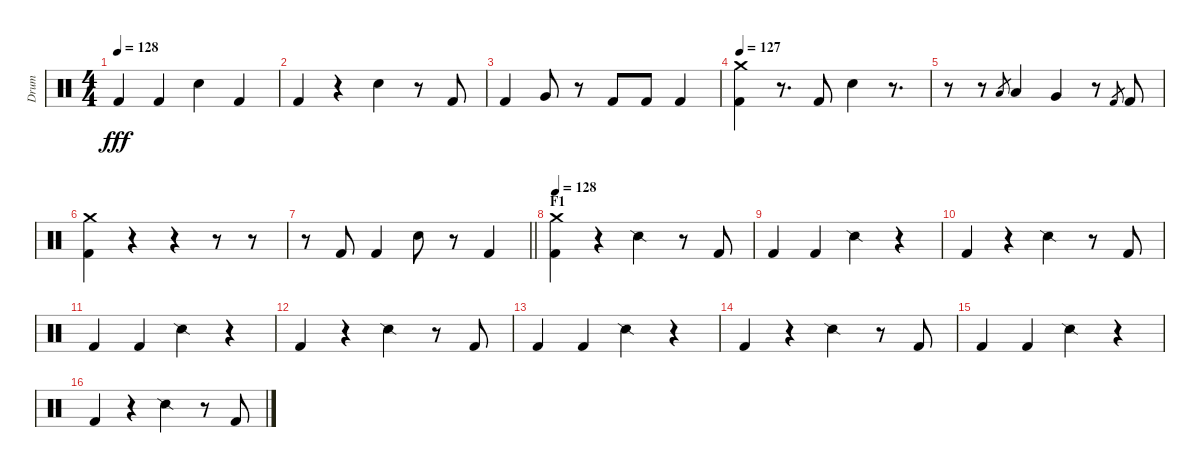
\track ("Drum" "Drum") {instrument percussion}
\staff {score}
\articulation defaults
\ts (4 4)
\tempo 128
\clef neutral
\ks c "Kick (hit) 2".4{dy fff} "Kick (hit) 2".4 "Electric Snare (hit)".4 "Kick (hit) 2".4
|
"Kick (hit) 2".4 r.4 "Electric Snare (hit)".4 r.8 "Kick (hit) 2".8 |
"Kick (hit) 2".4 "Very Low Tom (hit)".8 r.8 "Kick (hit) 2".8 "Kick (hit) 2".8 "Kick (hit) 2".4 |
\tempo 127
("Kick (hit) 2" "Crash medium (hit)").4 r.8{d} "Kick (hit) 2".8 "Electric Snare (hit)".4 r.8{d} |
r.8 r.8 "Low Tom (hit)".8{gr} "Low Tom (hit)".4 "Very Low Tom (hit)".4 r.8 "Kick (hit) 2".8{gr} "Kick (hit) 2".8 |
("Kick (hit) 2" "Crash medium (hit)").4 r.4 r.4 r.8 r.8 |
\barLineRight lightlight
r.8 "Kick (hit) 2".8 "Kick (hit) 2".4 "Electric Snare (hit)".8 r.8 "Kick (hit) 2".4 |
\section ("" "F1")
\tempo 128
("Kick (hit) 2" "Crash medium (hit)").4 r.4 "Snare (side stick) 2".4 r.8 "Kick (hit) 2".8 |
"Kick (hit) 2".4 "Kick (hit) 2".4 "Snare (side stick) 2".4 r.4 |
"Kick (hit) 2".4 r.4 "Snare (side stick) 2".4 r.8 "Kick (hit) 2".8 |
"Kick (hit) 2".4 "Kick (hit) 2".4 "Snare (side stick) 2".4 r.4 |
"Kick (hit) 2".4 r.4 "Snare (side stick) 2".4 r.8 "Kick (hit) 2".8 |
"Kick (hit) 2".4 "Kick (hit) 2".4 "Snare (side stick) 2".4 r.4 |
"Kick (hit) 2".4 r.4 "Snare (side stick) 2".4 r.8 "Kick (hit) 2".8 |
"Kick (hit) 2".4 "Kick (hit) 2".4 "Snare (side stick) 2".4 r.4 |
"Kick (hit) 2".4 r.4 "Snare (side stick) 2".4 r.8 "Kick (hit) 2".8
